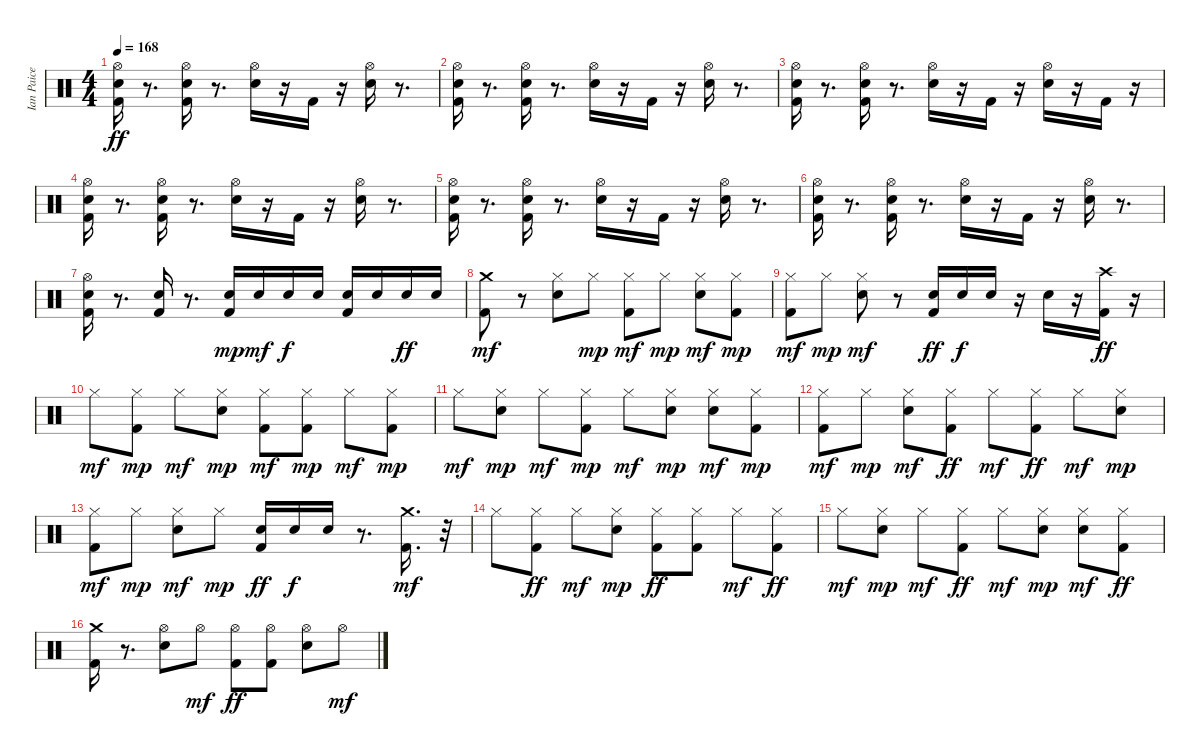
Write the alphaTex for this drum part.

\track ("Ian Paice" "Ian Paice") {instrument percussion}
\staff {score}
\articulation defaults
\ts (4 4)
\tempo 168
\clef neutral
\ks c
("Electric Snare (hit)" "Kick (hit) 2" "Hi-Hat (open)").16{dy ff} r.8{d} ("Electric Snare (hit)" "Kick (hit) 2" "Hi-Hat (open)").16 r.8{d} ("Electric Snare (hit)" "Hi-Hat (open)").16 r.16 "Kick (hit) 2".16 r.16 ("Electric Snare (hit)" "Hi-Hat (open)").16 r.8{d} |
("Electric Snare (hit)" "Kick (hit) 2" "Hi-Hat (open)").16 r.8{d} ("Electric Snare (hit)" "Kick (hit) 2" "Hi-Hat (open)").16 r.8{d} ("Electric Snare (hit)" "Hi-Hat (open)").16 r.16 "Kick (hit) 2".16 r.16 ("Electric Snare (hit)" "Hi-Hat (open)").16 r.8{d} |
("Electric Snare (hit)" "Kick (hit) 2" "Hi-Hat (open)").16 r.8{d} ("Electric Snare (hit)" "Kick (hit) 2" "Hi-Hat (open)").16 r.8{d} ("Electric Snare (hit)" "Hi-Hat (open)").16 r.16 "Kick (hit) 2".16 r.16 ("Electric Snare (hit)" "Hi-Hat (open)").16 r.16 "Kick (hit) 2".16 r.16 |
("Electric Snare (hit)" "Kick (hit) 2" "Hi-Hat (open)").16 r.8{d} ("Electric Snare (hit)" "Kick (hit) 2" "Hi-Hat (open)").16 r.8{d} ("Electric Snare (hit)" "Hi-Hat (open)").16 r.16 "Kick (hit) 2".16 r.16 ("Electric Snare (hit)" "Hi-Hat (open)").16 r.8{d} |
("Electric Snare (hit)" "Kick (hit) 2" "Hi-Hat (open)").16 r.8{d} ("Electric Snare (hit)" "Kick (hit) 2" "Hi-Hat (open)").16 r.8{d} ("Electric Snare (hit)" "Hi-Hat (open)").16 r.16 "Kick (hit) 2".16 r.16 ("Electric Snare (hit)" "Hi-Hat (open)").16 r.8{d} |
("Electric Snare (hit)" "Kick (hit) 2" "Hi-Hat (open)").16 r.8{d} ("Electric Snare (hit)" "Kick (hit) 2" "Hi-Hat (open)").16 r.8{d} ("Electric Snare (hit)" "Hi-Hat (open)").16 r.16 "Kick (hit) 2".16 r.16 ("Electric Snare (hit)" "Hi-Hat (open)").16 r.8{d} |
("Electric Snare (hit)" "Hi-Hat (open)" "Kick (hit) 2").16 r.8{d} ("Kick (hit) 2" "Electric Snare (hit)").16 r.8{d} ("Kick (hit) 2" "Electric Snare (hit)").16{dy mp} "Electric Snare (hit)".16{dy mf} "Electric Snare (hit)".16{dy f} "Electric Snare (hit)".16 ("Kick (hit) 2" "Electric Snare (hit)").16 "Electric Snare (hit)".16 "Electric Snare (hit)".16{dy ff} "Electric Snare (hit)".16 |
("Kick (hit) 2" "Crash medium (hit)").8{dy mf} r.8 ("Hi-Hat (closed)" "Electric Snare (hit)").8 "Hi-Hat (closed)".8{dy mp} ("Kick (hit) 2" "Hi-Hat (closed)").8{dy mf} "Hi-Hat (closed)".8{dy mp} ("Hi-Hat (closed)" "Electric Snare (hit)").8{dy mf} ("Kick (hit) 2" "Hi-Hat (closed)").8{dy mp} |
("Kick (hit) 2" "Hi-Hat (closed)").8{dy mf} "Hi-Hat (closed)".8{dy mp} ("Hi-Hat (closed)" "Electric Snare (hit)").8{dy mf} r.8 ("Electric Snare (hit)" "Kick (hit) 2").16{dy ff} "Electric Snare (hit)".16{dy f} "Electric Snare (hit)".16 r.16 "Electric Snare (hit)".16 r.16 ("Crash high (hit)" "Kick (hit) 2").16{dy ff} r.16 |
"Hi-Hat (closed)".8{dy mf} ("Kick (hit) 2" "Hi-Hat (closed)").8{dy mp} "Hi-Hat (closed)".8{dy mf} ("Hi-Hat (closed)" "Electric Snare (hit)").8{dy mp} ("Kick (hit) 2" "Hi-Hat (closed)").8{dy mf} ("Kick (hit) 2" "Hi-Hat (closed)").8{dy mp} "Hi-Hat (closed)".8{dy mf} ("Kick (hit) 2" "Hi-Hat (closed)").8{dy mp} |
"Hi-Hat (closed)".8{dy mf} ("Hi-Hat (closed)" "Electric Snare (hit)").8{dy mp} "Hi-Hat (closed)".8{dy mf} ("Kick (hit) 2" "Hi-Hat (closed)").8{dy mp} "Hi-Hat (closed)".8{dy mf} ("Hi-Hat (closed)" "Electric Snare (hit)").8{dy mp} ("Electric Snare (hit)" "Hi-Hat (closed)").8{dy mf} ("Kick (hit) 2" "Hi-Hat (closed)").8{dy mp} |
("Kick (hit) 2" "Hi-Hat (closed)").8{dy mf} "Hi-Hat (closed)".8{dy mp} ("Electric Snare (hit)" "Hi-Hat (closed)").8{dy mf} ("Hi-Hat (closed)" "Kick (hit) 2").8{dy ff} "Hi-Hat (closed)".8{dy mf} ("Hi-Hat (closed)" "Kick (hit) 2").8{dy ff} "Hi-Hat (closed)".8{dy mf} ("Hi-Hat (closed)" "Electric Snare (hit)").8{dy mp} |
("Kick (hit) 2" "Hi-Hat (closed)").8{dy mf} "Hi-Hat (closed)".8{dy mp} ("Electric Snare (hit)" "Hi-Hat (closed)").8{dy mf} "Hi-Hat (closed)".8{dy mp} ("Kick (hit) 2" "Electric Snare (hit)").16{dy ff} "Electric Snare (hit)".16{dy f} "Electric Snare (hit)".16 r.8{d} ("Kick (hit) 2" "Crash medium (hit)").16{d dy mf} r.32 |
"Hi-Hat (closed)".8 ("Hi-Hat (closed)" "Kick (hit) 2").8{dy ff} "Hi-Hat (closed)".8{dy mf} ("Hi-Hat (closed)" "Electric Snare (hit)").8{dy mp} ("Hi-Hat (closed)" "Kick (hit) 2").8{dy ff} ("Hi-Hat (closed)" "Kick (hit) 2").8 "Hi-Hat (closed)".8{dy mf} ("Hi-Hat (closed)" "Kick (hit) 2").8{dy ff} |
"Hi-Hat (closed)".8{dy mf} ("Hi-Hat (closed)" "Electric Snare (hit)").8{dy mp} "Hi-Hat (closed)".8{dy mf} ("Hi-Hat (closed)" "Kick (hit) 2").8{dy ff} "Hi-Hat (closed)".8{dy mf} ("Hi-Hat (closed)" "Electric Snare (hit)").8{dy mp} ("Electric Snare (hit)" "Hi-Hat (closed)").8{dy mf} ("Hi-Hat (closed)" "Kick (hit) 2").8{dy ff} |
("Crash medium (hit)" "Kick (hit) 2").16 r.8{d} ("Hi-Hat (open)" "Electric Snare (hit)").8 "Hi-Hat (open)".8{dy mf} ("Hi-Hat (open)" "Kick (hit) 2").8{dy ff} ("Hi-Hat (open)" "Kick (hit) 2").8 ("Hi-Hat (open)" "Electric Snare (hit)").8 "Hi-Hat (open)".8{dy mf}
